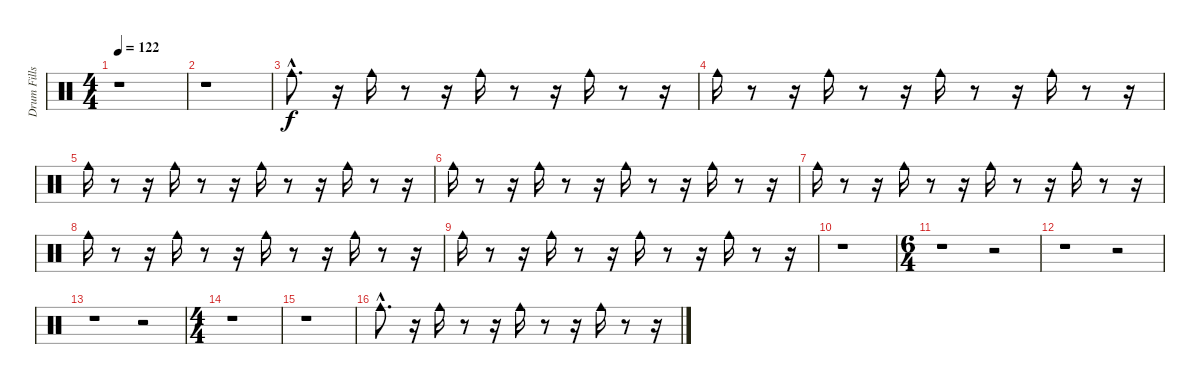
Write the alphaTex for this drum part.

\track ("Drum Fills etc" "Drum Fills") {instrument percussion}
\staff {score}
\articulation defaults
\ts (4 4)
\tempo 122
\clef neutral
\ks c
r.1{dy f} |
r.1 |
"Cowbell medium (hit)"{hac}.8{d} r.16 "Cowbell medium (hit)".16 r.8 r.16 "Cowbell medium (hit)".16 r.8 r.16 "Cowbell medium (hit)".16 r.8 r.16 |
"Cowbell medium (hit)".16 r.8 r.16 "Cowbell medium (hit)".16 r.8 r.16 "Cowbell medium (hit)".16 r.8 r.16 "Cowbell medium (hit)".16 r.8 r.16 |
"Cowbell medium (hit)".16 r.8 r.16 "Cowbell medium (hit)".16 r.8 r.16 "Cowbell medium (hit)".16 r.8 r.16 "Cowbell medium (hit)".16 r.8 r.16 |
"Cowbell medium (hit)".16 r.8 r.16 "Cowbell medium (hit)".16 r.8 r.16 "Cowbell medium (hit)".16 r.8 r.16 "Cowbell medium (hit)".16 r.8 r.16 |
"Cowbell medium (hit)".16 r.8 r.16 "Cowbell medium (hit)".16 r.8 r.16 "Cowbell medium (hit)".16 r.8 r.16 "Cowbell medium (hit)".16 r.8 r.16 |
"Cowbell medium (hit)".16 r.8 r.16 "Cowbell medium (hit)".16 r.8 r.16 "Cowbell medium (hit)".16 r.8 r.16 "Cowbell medium (hit)".16 r.8 r.16 |
"Cowbell medium (hit)".16 r.8 r.16 "Cowbell medium (hit)".16 r.8 r.16 "Cowbell medium (hit)".16 r.8 r.16 "Cowbell medium (hit)".16 r.8 r.16 |
r.1 |
\ts (6 4)
r.1 r.2 |
r.1 r.2 |
r.1 r.2 |
\ts (4 4)
r.1 |
r.1 |
"Cowbell medium (hit)"{hac}.8{d} r.16 "Cowbell medium (hit)".16 r.8 r.16 "Cowbell medium (hit)".16 r.8 r.16 "Cowbell medium (hit)".16 r.8 r.16
